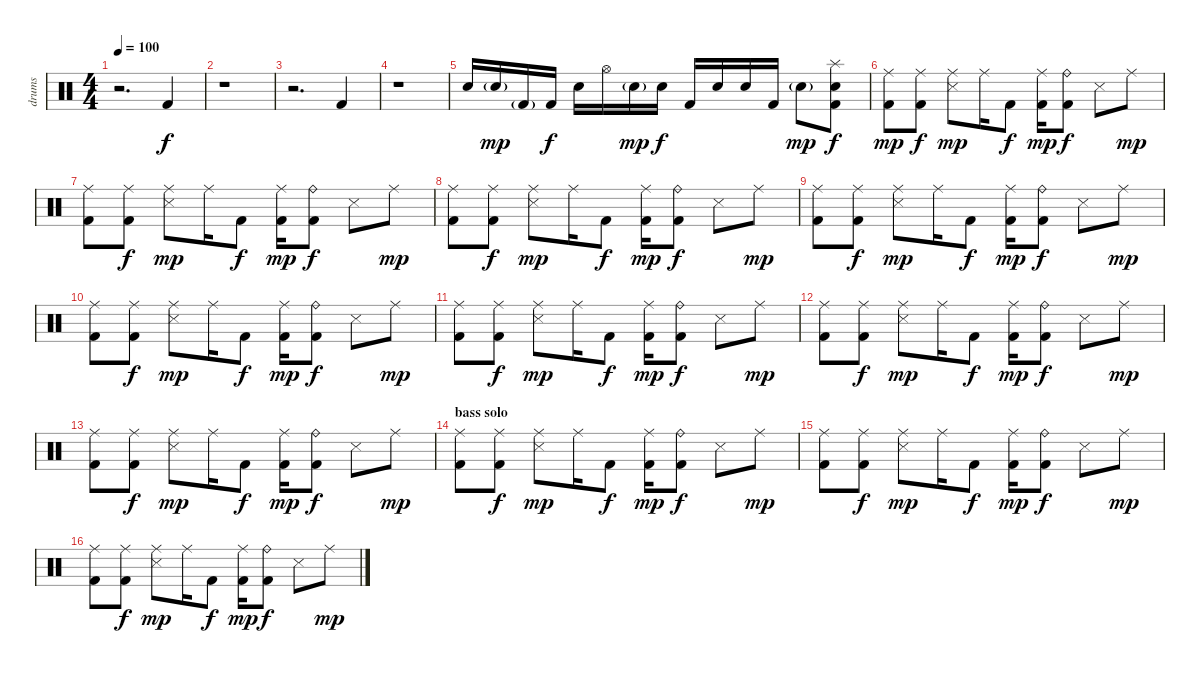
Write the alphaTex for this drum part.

\track ("drums" "drums") {instrument percussion}
\staff {score}
\articulation defaults
\ts (4 4)
\tempo 100
\clef neutral
\ks c
r.2{d dy f} "Kick (hit) 2".4 |
r.1 |
r.2{d} "Kick (hit) 2".4 |
r.1 |
"Snare (hit) 2".16 "Snare (hit) 2"{g}.16{dy mp} "Kick (hit) 2"{g}.16 "Kick (hit) 2".16{dy f} "Snare (hit) 2".16 "Hi-Hat (open)".16 "Snare (hit) 2"{g}.16{dy mp} "Snare (hit) 2".16{dy f} "Kick (hit) 2".16 "Snare (hit) 2".16 "Snare (hit) 2".16 "Kick (hit) 2".16 "Snare (hit) 2"{g}.8{dy mp} ("Splash (hit)" "Snare (hit) 2" "Kick (hit) 2").8{dy f} |
("Ride (middle)" "Kick (hit) 2").8{dy mp} ("Ride (middle)" "Kick (hit) 2").8{dy f} ("Ride (middle)" "Snare (side stick) 3").8{dy mp} "Ride (middle)".16 "Kick (hit) 2".8{dy f} ("Ride (middle)" "Kick (hit) 2").16{dy mp} ("Ride (bell)" "Kick (hit) 2").8{dy f} "Snare (side stick) 3".8 "Ride (middle)".8{dy mp} |
("Ride (middle)" "Kick (hit) 2").8 ("Ride (middle)" "Kick (hit) 2").8{dy f} ("Ride (middle)" "Snare (side stick) 3").8{dy mp} "Ride (middle)".16 "Kick (hit) 2".8{dy f} ("Ride (middle)" "Kick (hit) 2").16{dy mp} ("Ride (bell)" "Kick (hit) 2").8{dy f} "Snare (side stick) 3".8 "Ride (middle)".8{dy mp} |
("Ride (middle)" "Kick (hit) 2").8 ("Ride (middle)" "Kick (hit) 2").8{dy f} ("Ride (middle)" "Snare (side stick) 3").8{dy mp} "Ride (middle)".16 "Kick (hit) 2".8{dy f} ("Ride (middle)" "Kick (hit) 2").16{dy mp} ("Ride (bell)" "Kick (hit) 2").8{dy f} "Snare (side stick) 3".8 "Ride (middle)".8{dy mp} |
("Ride (middle)" "Kick (hit) 2").8 ("Ride (middle)" "Kick (hit) 2").8{dy f} ("Ride (middle)" "Snare (side stick) 3").8{dy mp} "Ride (middle)".16 "Kick (hit) 2".8{dy f} ("Ride (middle)" "Kick (hit) 2").16{dy mp} ("Ride (bell)" "Kick (hit) 2").8{dy f} "Snare (side stick) 3".8 "Ride (middle)".8{dy mp} |
("Ride (middle)" "Kick (hit) 2").8 ("Ride (middle)" "Kick (hit) 2").8{dy f} ("Ride (middle)" "Snare (side stick) 3").8{dy mp} "Ride (middle)".16 "Kick (hit) 2".8{dy f} ("Ride (middle)" "Kick (hit) 2").16{dy mp} ("Ride (bell)" "Kick (hit) 2").8{dy f} "Snare (side stick) 3".8 "Ride (middle)".8{dy mp} |
("Ride (middle)" "Kick (hit) 2").8 ("Ride (middle)" "Kick (hit) 2").8{dy f} ("Ride (middle)" "Snare (side stick) 3").8{dy mp} "Ride (middle)".16 "Kick (hit) 2".8{dy f} ("Ride (middle)" "Kick (hit) 2").16{dy mp} ("Ride (bell)" "Kick (hit) 2").8{dy f} "Snare (side stick) 3".8 "Ride (middle)".8{dy mp} |
("Ride (middle)" "Kick (hit) 2").8 ("Ride (middle)" "Kick (hit) 2").8{dy f} ("Ride (middle)" "Snare (side stick) 3").8{dy mp} "Ride (middle)".16 "Kick (hit) 2".8{dy f} ("Ride (middle)" "Kick (hit) 2").16{dy mp} ("Ride (bell)" "Kick (hit) 2").8{dy f} "Snare (side stick) 3".8 "Ride (middle)".8{dy mp} |
("Ride (middle)" "Kick (hit) 2").8 ("Ride (middle)" "Kick (hit) 2").8{dy f} ("Ride (middle)" "Snare (side stick) 3").8{dy mp} "Ride (middle)".16 "Kick (hit) 2".8{dy f} ("Ride (middle)" "Kick (hit) 2").16{dy mp} ("Ride (bell)" "Kick (hit) 2").8{dy f} "Snare (side stick) 3".8 "Ride (middle)".8{dy mp} |
\section ("" "bass solo")
("Ride (middle)" "Kick (hit) 2").8 ("Ride (middle)" "Kick (hit) 2").8{dy f} ("Ride (middle)" "Snare (side stick) 3").8{dy mp} "Ride (middle)".16 "Kick (hit) 2".8{dy f} ("Ride (middle)" "Kick (hit) 2").16{dy mp} ("Ride (bell)" "Kick (hit) 2").8{dy f} "Snare (side stick) 3".8 "Ride (middle)".8{dy mp} |
("Ride (middle)" "Kick (hit) 2").8 ("Ride (middle)" "Kick (hit) 2").8{dy f} ("Ride (middle)" "Snare (side stick) 3").8{dy mp} "Ride (middle)".16 "Kick (hit) 2".8{dy f} ("Ride (middle)" "Kick (hit) 2").16{dy mp} ("Ride (bell)" "Kick (hit) 2").8{dy f} "Snare (side stick) 3".8 "Ride (middle)".8{dy mp} |
("Ride (middle)" "Kick (hit) 2").8 ("Ride (middle)" "Kick (hit) 2").8{dy f} ("Ride (middle)" "Snare (side stick) 3").8{dy mp} "Ride (middle)".16 "Kick (hit) 2".8{dy f} ("Ride (middle)" "Kick (hit) 2").16{dy mp} ("Ride (bell)" "Kick (hit) 2").8{dy f} "Snare (side stick) 3".8 "Ride (middle)".8{dy mp}
